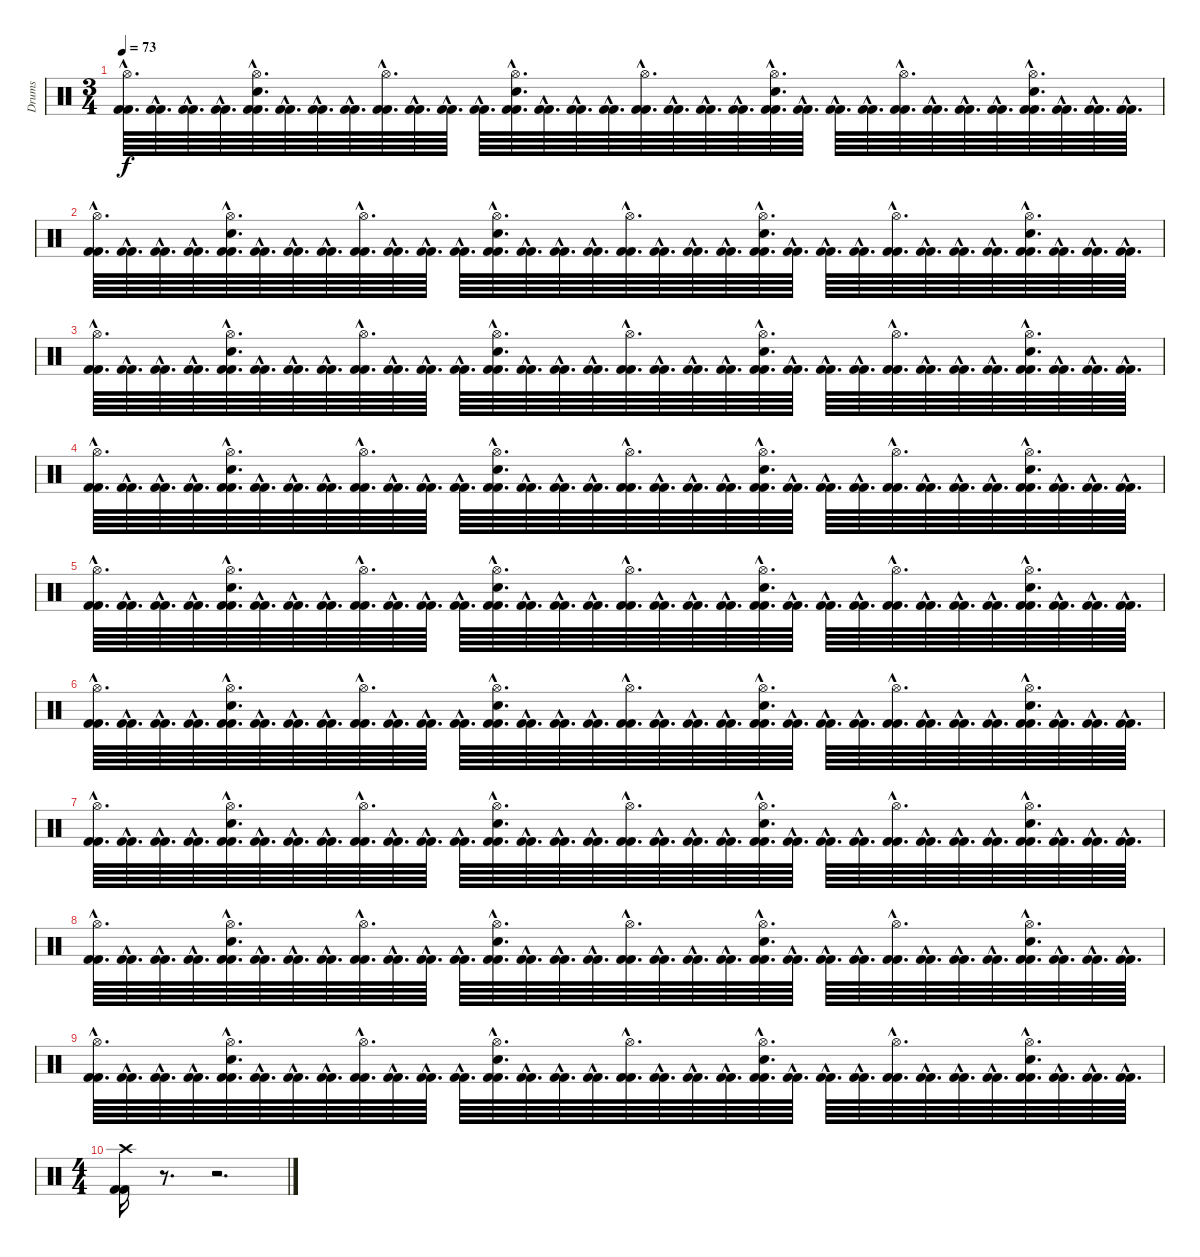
\track ("Drums" "Drums") {instrument percussion}
\staff {score}
\articulation defaults
\ts (3 4)
\tempo 73
\clef neutral
\ks c
("Kick (hit) 2"{hac} "Kick (hit) 2"{hac} "Hi-Hat (open)"{hac}).64{d dy f} ("Kick (hit) 2"{hac} "Kick (hit) 2"{hac}).64{d} ("Kick (hit) 2"{hac} "Kick (hit) 2"{hac}).64{d} ("Kick (hit) 2"{hac} "Kick (hit) 2"{hac}).64{d} ("Kick (hit) 2"{hac} "Kick (hit) 2"{hac} "Electric Snare (hit)"{hac} "Hi-Hat (open)"{hac}).64{d} ("Kick (hit) 2"{hac} "Kick (hit) 2"{hac}).64{d} ("Kick (hit) 2"{hac} "Kick (hit) 2"{hac}).64{d} ("Kick (hit) 2"{hac} "Kick (hit) 2"{hac}).64{d} ("Kick (hit) 2"{hac} "Kick (hit) 2"{hac} "Hi-Hat (open)"{hac}).64{d} ("Kick (hit) 2"{hac} "Kick (hit) 2"{hac}).64{d} ("Kick (hit) 2"{hac} "Kick (hit) 2"{hac}).64{d} ("Kick (hit) 2"{hac} "Kick (hit) 2"{hac}).64{d} ("Kick (hit) 2"{hac} "Kick (hit) 2"{hac} "Electric Snare (hit)"{hac} "Hi-Hat (open)"{hac}).64{d} ("Kick (hit) 2"{hac} "Kick (hit) 2"{hac}).64{d} ("Kick (hit) 2"{hac} "Kick (hit) 2"{hac}).64{d} ("Kick (hit) 2"{hac} "Kick (hit) 2"{hac}).64{d} ("Kick (hit) 2"{hac} "Kick (hit) 2"{hac} "Hi-Hat (open)"{hac}).64{d} ("Kick (hit) 2"{hac} "Kick (hit) 2"{hac}).64{d} ("Kick (hit) 2"{hac} "Kick (hit) 2"{hac}).64{d} ("Kick (hit) 2"{hac} "Kick (hit) 2"{hac}).64{d} ("Kick (hit) 2"{hac} "Kick (hit) 2"{hac} "Electric Snare (hit)"{hac} "Hi-Hat (open)"{hac}).64{d} ("Kick (hit) 2"{hac} "Kick (hit) 2"{hac}).64{d} ("Kick (hit) 2"{hac} "Kick (hit) 2"{hac}).64{d} ("Kick (hit) 2"{hac} "Kick (hit) 2"{hac}).64{d} ("Kick (hit) 2"{hac} "Kick (hit) 2"{hac} "Hi-Hat (open)"{hac}).64{d} ("Kick (hit) 2"{hac} "Kick (hit) 2"{hac}).64{d} ("Kick (hit) 2"{hac} "Kick (hit) 2"{hac}).64{d} ("Kick (hit) 2"{hac} "Kick (hit) 2"{hac}).64{d} ("Kick (hit) 2"{hac} "Kick (hit) 2"{hac} "Electric Snare (hit)"{hac} "Hi-Hat (open)"{hac}).64{d} ("Kick (hit) 2"{hac} "Kick (hit) 2"{hac}).64{d} ("Kick (hit) 2"{hac} "Kick (hit) 2"{hac}).64{d} ("Kick (hit) 2"{hac} "Kick (hit) 2"{hac}).64{d} |
("Kick (hit) 2"{hac} "Kick (hit) 2"{hac} "Hi-Hat (open)"{hac}).64{d} ("Kick (hit) 2"{hac} "Kick (hit) 2"{hac}).64{d} ("Kick (hit) 2"{hac} "Kick (hit) 2"{hac}).64{d} ("Kick (hit) 2"{hac} "Kick (hit) 2"{hac}).64{d} ("Kick (hit) 2"{hac} "Kick (hit) 2"{hac} "Electric Snare (hit)"{hac} "Hi-Hat (open)"{hac}).64{d} ("Kick (hit) 2"{hac} "Kick (hit) 2"{hac}).64{d} ("Kick (hit) 2"{hac} "Kick (hit) 2"{hac}).64{d} ("Kick (hit) 2"{hac} "Kick (hit) 2"{hac}).64{d} ("Kick (hit) 2"{hac} "Kick (hit) 2"{hac} "Hi-Hat (open)"{hac}).64{d} ("Kick (hit) 2"{hac} "Kick (hit) 2"{hac}).64{d} ("Kick (hit) 2"{hac} "Kick (hit) 2"{hac}).64{d} ("Kick (hit) 2"{hac} "Kick (hit) 2"{hac}).64{d} ("Kick (hit) 2"{hac} "Kick (hit) 2"{hac} "Electric Snare (hit)"{hac} "Hi-Hat (open)"{hac}).64{d} ("Kick (hit) 2"{hac} "Kick (hit) 2"{hac}).64{d} ("Kick (hit) 2"{hac} "Kick (hit) 2"{hac}).64{d} ("Kick (hit) 2"{hac} "Kick (hit) 2"{hac}).64{d} ("Kick (hit) 2"{hac} "Kick (hit) 2"{hac} "Hi-Hat (open)"{hac}).64{d} ("Kick (hit) 2"{hac} "Kick (hit) 2"{hac}).64{d} ("Kick (hit) 2"{hac} "Kick (hit) 2"{hac}).64{d} ("Kick (hit) 2"{hac} "Kick (hit) 2"{hac}).64{d} ("Kick (hit) 2"{hac} "Kick (hit) 2"{hac} "Electric Snare (hit)"{hac} "Hi-Hat (open)"{hac}).64{d} ("Kick (hit) 2"{hac} "Kick (hit) 2"{hac}).64{d} ("Kick (hit) 2"{hac} "Kick (hit) 2"{hac}).64{d} ("Kick (hit) 2"{hac} "Kick (hit) 2"{hac}).64{d} ("Kick (hit) 2"{hac} "Kick (hit) 2"{hac} "Hi-Hat (open)"{hac}).64{d} ("Kick (hit) 2"{hac} "Kick (hit) 2"{hac}).64{d} ("Kick (hit) 2"{hac} "Kick (hit) 2"{hac}).64{d} ("Kick (hit) 2"{hac} "Kick (hit) 2"{hac}).64{d} ("Kick (hit) 2"{hac} "Kick (hit) 2"{hac} "Electric Snare (hit)"{hac} "Hi-Hat (open)"{hac}).64{d} ("Kick (hit) 2"{hac} "Kick (hit) 2"{hac}).64{d} ("Kick (hit) 2"{hac} "Kick (hit) 2"{hac}).64{d} ("Kick (hit) 2"{hac} "Kick (hit) 2"{hac}).64{d} |
("Kick (hit) 2"{hac} "Kick (hit) 2"{hac} "Hi-Hat (open)"{hac}).64{d} ("Kick (hit) 2"{hac} "Kick (hit) 2"{hac}).64{d} ("Kick (hit) 2"{hac} "Kick (hit) 2"{hac}).64{d} ("Kick (hit) 2"{hac} "Kick (hit) 2"{hac}).64{d} ("Kick (hit) 2"{hac} "Kick (hit) 2"{hac} "Electric Snare (hit)"{hac} "Hi-Hat (open)"{hac}).64{d} ("Kick (hit) 2"{hac} "Kick (hit) 2"{hac}).64{d} ("Kick (hit) 2"{hac} "Kick (hit) 2"{hac}).64{d} ("Kick (hit) 2"{hac} "Kick (hit) 2"{hac}).64{d} ("Kick (hit) 2"{hac} "Kick (hit) 2"{hac} "Hi-Hat (open)"{hac}).64{d} ("Kick (hit) 2"{hac} "Kick (hit) 2"{hac}).64{d} ("Kick (hit) 2"{hac} "Kick (hit) 2"{hac}).64{d} ("Kick (hit) 2"{hac} "Kick (hit) 2"{hac}).64{d} ("Kick (hit) 2"{hac} "Kick (hit) 2"{hac} "Electric Snare (hit)"{hac} "Hi-Hat (open)"{hac}).64{d} ("Kick (hit) 2"{hac} "Kick (hit) 2"{hac}).64{d} ("Kick (hit) 2"{hac} "Kick (hit) 2"{hac}).64{d} ("Kick (hit) 2"{hac} "Kick (hit) 2"{hac}).64{d} ("Kick (hit) 2"{hac} "Kick (hit) 2"{hac} "Hi-Hat (open)"{hac}).64{d} ("Kick (hit) 2"{hac} "Kick (hit) 2"{hac}).64{d} ("Kick (hit) 2"{hac} "Kick (hit) 2"{hac}).64{d} ("Kick (hit) 2"{hac} "Kick (hit) 2"{hac}).64{d} ("Kick (hit) 2"{hac} "Kick (hit) 2"{hac} "Electric Snare (hit)"{hac} "Hi-Hat (open)"{hac}).64{d} ("Kick (hit) 2"{hac} "Kick (hit) 2"{hac}).64{d} ("Kick (hit) 2"{hac} "Kick (hit) 2"{hac}).64{d} ("Kick (hit) 2"{hac} "Kick (hit) 2"{hac}).64{d} ("Kick (hit) 2"{hac} "Kick (hit) 2"{hac} "Hi-Hat (open)"{hac}).64{d} ("Kick (hit) 2"{hac} "Kick (hit) 2"{hac}).64{d} ("Kick (hit) 2"{hac} "Kick (hit) 2"{hac}).64{d} ("Kick (hit) 2"{hac} "Kick (hit) 2"{hac}).64{d} ("Kick (hit) 2"{hac} "Kick (hit) 2"{hac} "Electric Snare (hit)"{hac} "Hi-Hat (open)"{hac}).64{d} ("Kick (hit) 2"{hac} "Kick (hit) 2"{hac}).64{d} ("Kick (hit) 2"{hac} "Kick (hit) 2"{hac}).64{d} ("Kick (hit) 2"{hac} "Kick (hit) 2"{hac}).64{d} |
("Kick (hit) 2"{hac} "Kick (hit) 2"{hac} "Hi-Hat (open)"{hac}).64{d} ("Kick (hit) 2"{hac} "Kick (hit) 2"{hac}).64{d} ("Kick (hit) 2"{hac} "Kick (hit) 2"{hac}).64{d} ("Kick (hit) 2"{hac} "Kick (hit) 2"{hac}).64{d} ("Kick (hit) 2"{hac} "Kick (hit) 2"{hac} "Electric Snare (hit)"{hac} "Hi-Hat (open)"{hac}).64{d} ("Kick (hit) 2"{hac} "Kick (hit) 2"{hac}).64{d} ("Kick (hit) 2"{hac} "Kick (hit) 2"{hac}).64{d} ("Kick (hit) 2"{hac} "Kick (hit) 2"{hac}).64{d} ("Kick (hit) 2"{hac} "Kick (hit) 2"{hac} "Hi-Hat (open)"{hac}).64{d} ("Kick (hit) 2"{hac} "Kick (hit) 2"{hac}).64{d} ("Kick (hit) 2"{hac} "Kick (hit) 2"{hac}).64{d} ("Kick (hit) 2"{hac} "Kick (hit) 2"{hac}).64{d} ("Kick (hit) 2"{hac} "Kick (hit) 2"{hac} "Electric Snare (hit)"{hac} "Hi-Hat (open)"{hac}).64{d} ("Kick (hit) 2"{hac} "Kick (hit) 2"{hac}).64{d} ("Kick (hit) 2"{hac} "Kick (hit) 2"{hac}).64{d} ("Kick (hit) 2"{hac} "Kick (hit) 2"{hac}).64{d} ("Kick (hit) 2"{hac} "Kick (hit) 2"{hac} "Hi-Hat (open)"{hac}).64{d} ("Kick (hit) 2"{hac} "Kick (hit) 2"{hac}).64{d} ("Kick (hit) 2"{hac} "Kick (hit) 2"{hac}).64{d} ("Kick (hit) 2"{hac} "Kick (hit) 2"{hac}).64{d} ("Kick (hit) 2"{hac} "Kick (hit) 2"{hac} "Electric Snare (hit)"{hac} "Hi-Hat (open)"{hac}).64{d} ("Kick (hit) 2"{hac} "Kick (hit) 2"{hac}).64{d} ("Kick (hit) 2"{hac} "Kick (hit) 2"{hac}).64{d} ("Kick (hit) 2"{hac} "Kick (hit) 2"{hac}).64{d} ("Kick (hit) 2"{hac} "Kick (hit) 2"{hac} "Hi-Hat (open)"{hac}).64{d} ("Kick (hit) 2"{hac} "Kick (hit) 2"{hac}).64{d} ("Kick (hit) 2"{hac} "Kick (hit) 2"{hac}).64{d} ("Kick (hit) 2"{hac} "Kick (hit) 2"{hac}).64{d} ("Kick (hit) 2"{hac} "Kick (hit) 2"{hac} "Electric Snare (hit)"{hac} "Hi-Hat (open)"{hac}).64{d} ("Kick (hit) 2"{hac} "Kick (hit) 2"{hac}).64{d} ("Kick (hit) 2"{hac} "Kick (hit) 2"{hac}).64{d} ("Kick (hit) 2"{hac} "Kick (hit) 2"{hac}).64{d} |
("Kick (hit) 2"{hac} "Kick (hit) 2"{hac} "Hi-Hat (open)"{hac}).64{d} ("Kick (hit) 2"{hac} "Kick (hit) 2"{hac}).64{d} ("Kick (hit) 2"{hac} "Kick (hit) 2"{hac}).64{d} ("Kick (hit) 2"{hac} "Kick (hit) 2"{hac}).64{d} ("Kick (hit) 2"{hac} "Kick (hit) 2"{hac} "Electric Snare (hit)"{hac} "Hi-Hat (open)"{hac}).64{d} ("Kick (hit) 2"{hac} "Kick (hit) 2"{hac}).64{d} ("Kick (hit) 2"{hac} "Kick (hit) 2"{hac}).64{d} ("Kick (hit) 2"{hac} "Kick (hit) 2"{hac}).64{d} ("Kick (hit) 2"{hac} "Kick (hit) 2"{hac} "Hi-Hat (open)"{hac}).64{d} ("Kick (hit) 2"{hac} "Kick (hit) 2"{hac}).64{d} ("Kick (hit) 2"{hac} "Kick (hit) 2"{hac}).64{d} ("Kick (hit) 2"{hac} "Kick (hit) 2"{hac}).64{d} ("Kick (hit) 2"{hac} "Kick (hit) 2"{hac} "Electric Snare (hit)"{hac} "Hi-Hat (open)"{hac}).64{d} ("Kick (hit) 2"{hac} "Kick (hit) 2"{hac}).64{d} ("Kick (hit) 2"{hac} "Kick (hit) 2"{hac}).64{d} ("Kick (hit) 2"{hac} "Kick (hit) 2"{hac}).64{d} ("Kick (hit) 2"{hac} "Kick (hit) 2"{hac} "Hi-Hat (open)"{hac}).64{d} ("Kick (hit) 2"{hac} "Kick (hit) 2"{hac}).64{d} ("Kick (hit) 2"{hac} "Kick (hit) 2"{hac}).64{d} ("Kick (hit) 2"{hac} "Kick (hit) 2"{hac}).64{d} ("Kick (hit) 2"{hac} "Kick (hit) 2"{hac} "Electric Snare (hit)"{hac} "Hi-Hat (open)"{hac}).64{d} ("Kick (hit) 2"{hac} "Kick (hit) 2"{hac}).64{d} ("Kick (hit) 2"{hac} "Kick (hit) 2"{hac}).64{d} ("Kick (hit) 2"{hac} "Kick (hit) 2"{hac}).64{d} ("Kick (hit) 2"{hac} "Kick (hit) 2"{hac} "Hi-Hat (open)"{hac}).64{d} ("Kick (hit) 2"{hac} "Kick (hit) 2"{hac}).64{d} ("Kick (hit) 2"{hac} "Kick (hit) 2"{hac}).64{d} ("Kick (hit) 2"{hac} "Kick (hit) 2"{hac}).64{d} ("Kick (hit) 2"{hac} "Kick (hit) 2"{hac} "Electric Snare (hit)"{hac} "Hi-Hat (open)"{hac}).64{d} ("Kick (hit) 2"{hac} "Kick (hit) 2"{hac}).64{d} ("Kick (hit) 2"{hac} "Kick (hit) 2"{hac}).64{d} ("Kick (hit) 2"{hac} "Kick (hit) 2"{hac}).64{d} |
("Kick (hit) 2"{hac} "Kick (hit) 2"{hac} "Hi-Hat (open)"{hac}).64{d} ("Kick (hit) 2"{hac} "Kick (hit) 2"{hac}).64{d} ("Kick (hit) 2"{hac} "Kick (hit) 2"{hac}).64{d} ("Kick (hit) 2"{hac} "Kick (hit) 2"{hac}).64{d} ("Kick (hit) 2"{hac} "Kick (hit) 2"{hac} "Electric Snare (hit)"{hac} "Hi-Hat (open)"{hac}).64{d} ("Kick (hit) 2"{hac} "Kick (hit) 2"{hac}).64{d} ("Kick (hit) 2"{hac} "Kick (hit) 2"{hac}).64{d} ("Kick (hit) 2"{hac} "Kick (hit) 2"{hac}).64{d} ("Kick (hit) 2"{hac} "Kick (hit) 2"{hac} "Hi-Hat (open)"{hac}).64{d} ("Kick (hit) 2"{hac} "Kick (hit) 2"{hac}).64{d} ("Kick (hit) 2"{hac} "Kick (hit) 2"{hac}).64{d} ("Kick (hit) 2"{hac} "Kick (hit) 2"{hac}).64{d} ("Kick (hit) 2"{hac} "Kick (hit) 2"{hac} "Electric Snare (hit)"{hac} "Hi-Hat (open)"{hac}).64{d} ("Kick (hit) 2"{hac} "Kick (hit) 2"{hac}).64{d} ("Kick (hit) 2"{hac} "Kick (hit) 2"{hac}).64{d} ("Kick (hit) 2"{hac} "Kick (hit) 2"{hac}).64{d} ("Kick (hit) 2"{hac} "Kick (hit) 2"{hac} "Hi-Hat (open)"{hac}).64{d} ("Kick (hit) 2"{hac} "Kick (hit) 2"{hac}).64{d} ("Kick (hit) 2"{hac} "Kick (hit) 2"{hac}).64{d} ("Kick (hit) 2"{hac} "Kick (hit) 2"{hac}).64{d} ("Kick (hit) 2"{hac} "Kick (hit) 2"{hac} "Electric Snare (hit)"{hac} "Hi-Hat (open)"{hac}).64{d} ("Kick (hit) 2"{hac} "Kick (hit) 2"{hac}).64{d} ("Kick (hit) 2"{hac} "Kick (hit) 2"{hac}).64{d} ("Kick (hit) 2"{hac} "Kick (hit) 2"{hac}).64{d} ("Kick (hit) 2"{hac} "Kick (hit) 2"{hac} "Hi-Hat (open)"{hac}).64{d} ("Kick (hit) 2"{hac} "Kick (hit) 2"{hac}).64{d} ("Kick (hit) 2"{hac} "Kick (hit) 2"{hac}).64{d} ("Kick (hit) 2"{hac} "Kick (hit) 2"{hac}).64{d} ("Kick (hit) 2"{hac} "Kick (hit) 2"{hac} "Electric Snare (hit)"{hac} "Hi-Hat (open)"{hac}).64{d} ("Kick (hit) 2"{hac} "Kick (hit) 2"{hac}).64{d} ("Kick (hit) 2"{hac} "Kick (hit) 2"{hac}).64{d} ("Kick (hit) 2"{hac} "Kick (hit) 2"{hac}).64{d} |
("Kick (hit) 2"{hac} "Kick (hit) 2"{hac} "Hi-Hat (open)"{hac}).64{d} ("Kick (hit) 2"{hac} "Kick (hit) 2"{hac}).64{d} ("Kick (hit) 2"{hac} "Kick (hit) 2"{hac}).64{d} ("Kick (hit) 2"{hac} "Kick (hit) 2"{hac}).64{d} ("Kick (hit) 2"{hac} "Kick (hit) 2"{hac} "Electric Snare (hit)"{hac} "Hi-Hat (open)"{hac}).64{d} ("Kick (hit) 2"{hac} "Kick (hit) 2"{hac}).64{d} ("Kick (hit) 2"{hac} "Kick (hit) 2"{hac}).64{d} ("Kick (hit) 2"{hac} "Kick (hit) 2"{hac}).64{d} ("Kick (hit) 2"{hac} "Kick (hit) 2"{hac} "Hi-Hat (open)"{hac}).64{d} ("Kick (hit) 2"{hac} "Kick (hit) 2"{hac}).64{d} ("Kick (hit) 2"{hac} "Kick (hit) 2"{hac}).64{d} ("Kick (hit) 2"{hac} "Kick (hit) 2"{hac}).64{d} ("Kick (hit) 2"{hac} "Kick (hit) 2"{hac} "Electric Snare (hit)"{hac} "Hi-Hat (open)"{hac}).64{d} ("Kick (hit) 2"{hac} "Kick (hit) 2"{hac}).64{d} ("Kick (hit) 2"{hac} "Kick (hit) 2"{hac}).64{d} ("Kick (hit) 2"{hac} "Kick (hit) 2"{hac}).64{d} ("Kick (hit) 2"{hac} "Kick (hit) 2"{hac} "Hi-Hat (open)"{hac}).64{d} ("Kick (hit) 2"{hac} "Kick (hit) 2"{hac}).64{d} ("Kick (hit) 2"{hac} "Kick (hit) 2"{hac}).64{d} ("Kick (hit) 2"{hac} "Kick (hit) 2"{hac}).64{d} ("Kick (hit) 2"{hac} "Kick (hit) 2"{hac} "Electric Snare (hit)"{hac} "Hi-Hat (open)"{hac}).64{d} ("Kick (hit) 2"{hac} "Kick (hit) 2"{hac}).64{d} ("Kick (hit) 2"{hac} "Kick (hit) 2"{hac}).64{d} ("Kick (hit) 2"{hac} "Kick (hit) 2"{hac}).64{d} ("Kick (hit) 2"{hac} "Kick (hit) 2"{hac} "Hi-Hat (open)"{hac}).64{d} ("Kick (hit) 2"{hac} "Kick (hit) 2"{hac}).64{d} ("Kick (hit) 2"{hac} "Kick (hit) 2"{hac}).64{d} ("Kick (hit) 2"{hac} "Kick (hit) 2"{hac}).64{d} ("Kick (hit) 2"{hac} "Kick (hit) 2"{hac} "Electric Snare (hit)"{hac} "Hi-Hat (open)"{hac}).64{d} ("Kick (hit) 2"{hac} "Kick (hit) 2"{hac}).64{d} ("Kick (hit) 2"{hac} "Kick (hit) 2"{hac}).64{d} ("Kick (hit) 2"{hac} "Kick (hit) 2"{hac}).64{d} |
("Kick (hit) 2"{hac} "Kick (hit) 2"{hac} "Hi-Hat (open)"{hac}).64{d} ("Kick (hit) 2"{hac} "Kick (hit) 2"{hac}).64{d} ("Kick (hit) 2"{hac} "Kick (hit) 2"{hac}).64{d} ("Kick (hit) 2"{hac} "Kick (hit) 2"{hac}).64{d} ("Kick (hit) 2"{hac} "Kick (hit) 2"{hac} "Electric Snare (hit)"{hac} "Hi-Hat (open)"{hac}).64{d} ("Kick (hit) 2"{hac} "Kick (hit) 2"{hac}).64{d} ("Kick (hit) 2"{hac} "Kick (hit) 2"{hac}).64{d} ("Kick (hit) 2"{hac} "Kick (hit) 2"{hac}).64{d} ("Kick (hit) 2"{hac} "Kick (hit) 2"{hac} "Hi-Hat (open)"{hac}).64{d} ("Kick (hit) 2"{hac} "Kick (hit) 2"{hac}).64{d} ("Kick (hit) 2"{hac} "Kick (hit) 2"{hac}).64{d} ("Kick (hit) 2"{hac} "Kick (hit) 2"{hac}).64{d} ("Kick (hit) 2"{hac} "Kick (hit) 2"{hac} "Electric Snare (hit)"{hac} "Hi-Hat (open)"{hac}).64{d} ("Kick (hit) 2"{hac} "Kick (hit) 2"{hac}).64{d} ("Kick (hit) 2"{hac} "Kick (hit) 2"{hac}).64{d} ("Kick (hit) 2"{hac} "Kick (hit) 2"{hac}).64{d} ("Kick (hit) 2"{hac} "Kick (hit) 2"{hac} "Hi-Hat (open)"{hac}).64{d} ("Kick (hit) 2"{hac} "Kick (hit) 2"{hac}).64{d} ("Kick (hit) 2"{hac} "Kick (hit) 2"{hac}).64{d} ("Kick (hit) 2"{hac} "Kick (hit) 2"{hac}).64{d} ("Kick (hit) 2"{hac} "Kick (hit) 2"{hac} "Electric Snare (hit)"{hac} "Hi-Hat (open)"{hac}).64{d} ("Kick (hit) 2"{hac} "Kick (hit) 2"{hac}).64{d} ("Kick (hit) 2"{hac} "Kick (hit) 2"{hac}).64{d} ("Kick (hit) 2"{hac} "Kick (hit) 2"{hac}).64{d} ("Kick (hit) 2"{hac} "Kick (hit) 2"{hac} "Hi-Hat (open)"{hac}).64{d} ("Kick (hit) 2"{hac} "Kick (hit) 2"{hac}).64{d} ("Kick (hit) 2"{hac} "Kick (hit) 2"{hac}).64{d} ("Kick (hit) 2"{hac} "Kick (hit) 2"{hac}).64{d} ("Kick (hit) 2"{hac} "Kick (hit) 2"{hac} "Electric Snare (hit)"{hac} "Hi-Hat (open)"{hac}).64{d} ("Kick (hit) 2"{hac} "Kick (hit) 2"{hac}).64{d} ("Kick (hit) 2"{hac} "Kick (hit) 2"{hac}).64{d} ("Kick (hit) 2"{hac} "Kick (hit) 2"{hac}).64{d} |
("Kick (hit) 2"{hac} "Kick (hit) 2"{hac} "Hi-Hat (open)"{hac}).64{d} ("Kick (hit) 2"{hac} "Kick (hit) 2"{hac}).64{d} ("Kick (hit) 2"{hac} "Kick (hit) 2"{hac}).64{d} ("Kick (hit) 2"{hac} "Kick (hit) 2"{hac}).64{d} ("Kick (hit) 2"{hac} "Kick (hit) 2"{hac} "Electric Snare (hit)"{hac} "Hi-Hat (open)"{hac}).64{d} ("Kick (hit) 2"{hac} "Kick (hit) 2"{hac}).64{d} ("Kick (hit) 2"{hac} "Kick (hit) 2"{hac}).64{d} ("Kick (hit) 2"{hac} "Kick (hit) 2"{hac}).64{d} ("Kick (hit) 2"{hac} "Kick (hit) 2"{hac} "Hi-Hat (open)"{hac}).64{d} ("Kick (hit) 2"{hac} "Kick (hit) 2"{hac}).64{d} ("Kick (hit) 2"{hac} "Kick (hit) 2"{hac}).64{d} ("Kick (hit) 2"{hac} "Kick (hit) 2"{hac}).64{d} ("Kick (hit) 2"{hac} "Kick (hit) 2"{hac} "Electric Snare (hit)"{hac} "Hi-Hat (open)"{hac}).64{d} ("Kick (hit) 2"{hac} "Kick (hit) 2"{hac}).64{d} ("Kick (hit) 2"{hac} "Kick (hit) 2"{hac}).64{d} ("Kick (hit) 2"{hac} "Kick (hit) 2"{hac}).64{d} ("Kick (hit) 2"{hac} "Kick (hit) 2"{hac} "Hi-Hat (open)"{hac}).64{d} ("Kick (hit) 2"{hac} "Kick (hit) 2"{hac}).64{d} ("Kick (hit) 2"{hac} "Kick (hit) 2"{hac}).64{d} ("Kick (hit) 2"{hac} "Kick (hit) 2"{hac}).64{d} ("Kick (hit) 2"{hac} "Kick (hit) 2"{hac} "Electric Snare (hit)"{hac} "Hi-Hat (open)"{hac}).64{d} ("Kick (hit) 2"{hac} "Kick (hit) 2"{hac}).64{d} ("Kick (hit) 2"{hac} "Kick (hit) 2"{hac}).64{d} ("Kick (hit) 2"{hac} "Kick (hit) 2"{hac}).64{d} ("Kick (hit) 2"{hac} "Kick (hit) 2"{hac} "Hi-Hat (open)"{hac}).64{d} ("Kick (hit) 2"{hac} "Kick (hit) 2"{hac}).64{d} ("Kick (hit) 2"{hac} "Kick (hit) 2"{hac}).64{d} ("Kick (hit) 2"{hac} "Kick (hit) 2"{hac}).64{d} ("Kick (hit) 2"{hac} "Kick (hit) 2"{hac} "Electric Snare (hit)"{hac} "Hi-Hat (open)"{hac}).64{d} ("Kick (hit) 2"{hac} "Kick (hit) 2"{hac}).64{d} ("Kick (hit) 2"{hac} "Kick (hit) 2"{hac}).64{d} ("Kick (hit) 2"{hac} "Kick (hit) 2"{hac}).64{d} |
\ts (4 4)
("Kick (hit) 2" "Kick (hit) 2" "Crash high (hit)").16 r.8{d volume 0} r.2{d}
